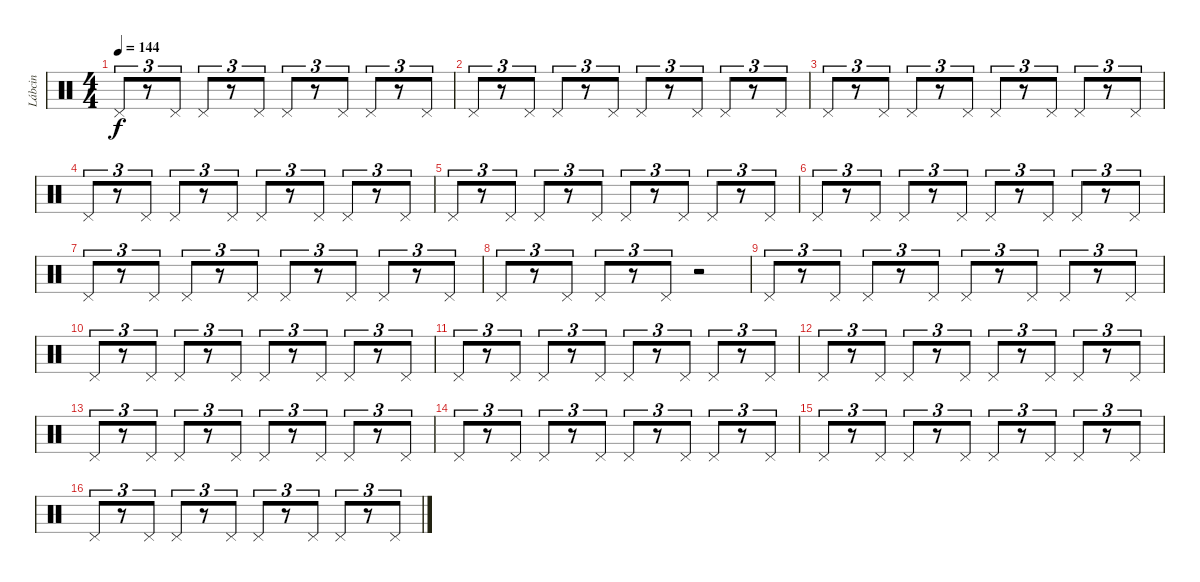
\track ("Lábcin" "Lábcin") {instrument percussion}
\staff {score}
\articulation defaults
\ts (4 4)
\tempo 144
\clef neutral
\ks c "Pedal Hi-Hat (hit)".8{tu (3 2) dy f}
r.8{tu (3 2)} "Pedal Hi-Hat (hit)".8{tu (3 2)} "Pedal Hi-Hat (hit)".8{tu (3 2)} r.8{tu (3 2)} "Pedal Hi-Hat (hit)".8{tu (3 2)} "Pedal Hi-Hat (hit)".8{tu (3 2)} r.8{tu (3 2)} "Pedal Hi-Hat (hit)".8{tu (3 2)} "Pedal Hi-Hat (hit)".8{tu (3 2)} r.8{tu (3 2)} "Pedal Hi-Hat (hit)".8{tu (3 2)} |
"Pedal Hi-Hat (hit)".8{tu (3 2)} r.8{tu (3 2)} "Pedal Hi-Hat (hit)".8{tu (3 2)} "Pedal Hi-Hat (hit)".8{tu (3 2)} r.8{tu (3 2)} "Pedal Hi-Hat (hit)".8{tu (3 2)} "Pedal Hi-Hat (hit)".8{tu (3 2)} r.8{tu (3 2)} "Pedal Hi-Hat (hit)".8{tu (3 2)} "Pedal Hi-Hat (hit)".8{tu (3 2)} r.8{tu (3 2)} "Pedal Hi-Hat (hit)".8{tu (3 2)} |
"Pedal Hi-Hat (hit)".8{tu (3 2)} r.8{tu (3 2)} "Pedal Hi-Hat (hit)".8{tu (3 2)} "Pedal Hi-Hat (hit)".8{tu (3 2)} r.8{tu (3 2)} "Pedal Hi-Hat (hit)".8{tu (3 2)} "Pedal Hi-Hat (hit)".8{tu (3 2)} r.8{tu (3 2)} "Pedal Hi-Hat (hit)".8{tu (3 2)} "Pedal Hi-Hat (hit)".8{tu (3 2)} r.8{tu (3 2)} "Pedal Hi-Hat (hit)".8{tu (3 2)} |
"Pedal Hi-Hat (hit)".8{tu (3 2)} r.8{tu (3 2)} "Pedal Hi-Hat (hit)".8{tu (3 2)} "Pedal Hi-Hat (hit)".8{tu (3 2)} r.8{tu (3 2)} "Pedal Hi-Hat (hit)".8{tu (3 2)} "Pedal Hi-Hat (hit)".8{tu (3 2)} r.8{tu (3 2)} "Pedal Hi-Hat (hit)".8{tu (3 2)} "Pedal Hi-Hat (hit)".8{tu (3 2)} r.8{tu (3 2)} "Pedal Hi-Hat (hit)".8{tu (3 2)} |
"Pedal Hi-Hat (hit)".8{tu (3 2)} r.8{tu (3 2)} "Pedal Hi-Hat (hit)".8{tu (3 2)} "Pedal Hi-Hat (hit)".8{tu (3 2)} r.8{tu (3 2)} "Pedal Hi-Hat (hit)".8{tu (3 2)} "Pedal Hi-Hat (hit)".8{tu (3 2)} r.8{tu (3 2)} "Pedal Hi-Hat (hit)".8{tu (3 2)} "Pedal Hi-Hat (hit)".8{tu (3 2)} r.8{tu (3 2)} "Pedal Hi-Hat (hit)".8{tu (3 2)} |
"Pedal Hi-Hat (hit)".8{tu (3 2)} r.8{tu (3 2)} "Pedal Hi-Hat (hit)".8{tu (3 2)} "Pedal Hi-Hat (hit)".8{tu (3 2)} r.8{tu (3 2)} "Pedal Hi-Hat (hit)".8{tu (3 2)} "Pedal Hi-Hat (hit)".8{tu (3 2)} r.8{tu (3 2)} "Pedal Hi-Hat (hit)".8{tu (3 2)} "Pedal Hi-Hat (hit)".8{tu (3 2)} r.8{tu (3 2)} "Pedal Hi-Hat (hit)".8{tu (3 2)} |
"Pedal Hi-Hat (hit)".8{tu (3 2)} r.8{tu (3 2)} "Pedal Hi-Hat (hit)".8{tu (3 2)} "Pedal Hi-Hat (hit)".8{tu (3 2)} r.8{tu (3 2)} "Pedal Hi-Hat (hit)".8{tu (3 2)} "Pedal Hi-Hat (hit)".8{tu (3 2)} r.8{tu (3 2)} "Pedal Hi-Hat (hit)".8{tu (3 2)} "Pedal Hi-Hat (hit)".8{tu (3 2)} r.8{tu (3 2)} "Pedal Hi-Hat (hit)".8{tu (3 2)} |
"Pedal Hi-Hat (hit)".8{tu (3 2)} r.8{tu (3 2)} "Pedal Hi-Hat (hit)".8{tu (3 2)} "Pedal Hi-Hat (hit)".8{tu (3 2)} r.8{tu (3 2)} "Pedal Hi-Hat (hit)".8{tu (3 2)} r.2 |
"Pedal Hi-Hat (hit)".8{tu (3 2)} r.8{tu (3 2)} "Pedal Hi-Hat (hit)".8{tu (3 2)} "Pedal Hi-Hat (hit)".8{tu (3 2)} r.8{tu (3 2)} "Pedal Hi-Hat (hit)".8{tu (3 2)} "Pedal Hi-Hat (hit)".8{tu (3 2)} r.8{tu (3 2)} "Pedal Hi-Hat (hit)".8{tu (3 2)} "Pedal Hi-Hat (hit)".8{tu (3 2)} r.8{tu (3 2)} "Pedal Hi-Hat (hit)".8{tu (3 2)} |
"Pedal Hi-Hat (hit)".8{tu (3 2)} r.8{tu (3 2)} "Pedal Hi-Hat (hit)".8{tu (3 2)} "Pedal Hi-Hat (hit)".8{tu (3 2)} r.8{tu (3 2)} "Pedal Hi-Hat (hit)".8{tu (3 2)} "Pedal Hi-Hat (hit)".8{tu (3 2)} r.8{tu (3 2)} "Pedal Hi-Hat (hit)".8{tu (3 2)} "Pedal Hi-Hat (hit)".8{tu (3 2)} r.8{tu (3 2)} "Pedal Hi-Hat (hit)".8{tu (3 2)} |
"Pedal Hi-Hat (hit)".8{tu (3 2)} r.8{tu (3 2)} "Pedal Hi-Hat (hit)".8{tu (3 2)} "Pedal Hi-Hat (hit)".8{tu (3 2)} r.8{tu (3 2)} "Pedal Hi-Hat (hit)".8{tu (3 2)} "Pedal Hi-Hat (hit)".8{tu (3 2)} r.8{tu (3 2)} "Pedal Hi-Hat (hit)".8{tu (3 2)} "Pedal Hi-Hat (hit)".8{tu (3 2)} r.8{tu (3 2)} "Pedal Hi-Hat (hit)".8{tu (3 2)} |
"Pedal Hi-Hat (hit)".8{tu (3 2)} r.8{tu (3 2)} "Pedal Hi-Hat (hit)".8{tu (3 2)} "Pedal Hi-Hat (hit)".8{tu (3 2)} r.8{tu (3 2)} "Pedal Hi-Hat (hit)".8{tu (3 2)} "Pedal Hi-Hat (hit)".8{tu (3 2)} r.8{tu (3 2)} "Pedal Hi-Hat (hit)".8{tu (3 2)} "Pedal Hi-Hat (hit)".8{tu (3 2)} r.8{tu (3 2)} "Pedal Hi-Hat (hit)".8{tu (3 2)} |
"Pedal Hi-Hat (hit)".8{tu (3 2)} r.8{tu (3 2)} "Pedal Hi-Hat (hit)".8{tu (3 2)} "Pedal Hi-Hat (hit)".8{tu (3 2)} r.8{tu (3 2)} "Pedal Hi-Hat (hit)".8{tu (3 2)} "Pedal Hi-Hat (hit)".8{tu (3 2)} r.8{tu (3 2)} "Pedal Hi-Hat (hit)".8{tu (3 2)} "Pedal Hi-Hat (hit)".8{tu (3 2)} r.8{tu (3 2)} "Pedal Hi-Hat (hit)".8{tu (3 2)} |
"Pedal Hi-Hat (hit)".8{tu (3 2)} r.8{tu (3 2)} "Pedal Hi-Hat (hit)".8{tu (3 2)} "Pedal Hi-Hat (hit)".8{tu (3 2)} r.8{tu (3 2)} "Pedal Hi-Hat (hit)".8{tu (3 2)} "Pedal Hi-Hat (hit)".8{tu (3 2)} r.8{tu (3 2)} "Pedal Hi-Hat (hit)".8{tu (3 2)} "Pedal Hi-Hat (hit)".8{tu (3 2)} r.8{tu (3 2)} "Pedal Hi-Hat (hit)".8{tu (3 2)} |
"Pedal Hi-Hat (hit)".8{tu (3 2)} r.8{tu (3 2)} "Pedal Hi-Hat (hit)".8{tu (3 2)} "Pedal Hi-Hat (hit)".8{tu (3 2)} r.8{tu (3 2)} "Pedal Hi-Hat (hit)".8{tu (3 2)} "Pedal Hi-Hat (hit)".8{tu (3 2)} r.8{tu (3 2)} "Pedal Hi-Hat (hit)".8{tu (3 2)} "Pedal Hi-Hat (hit)".8{tu (3 2)} r.8{tu (3 2)} "Pedal Hi-Hat (hit)".8{tu (3 2)} |
"Pedal Hi-Hat (hit)".8{tu (3 2)} r.8{tu (3 2)} "Pedal Hi-Hat (hit)".8{tu (3 2)} "Pedal Hi-Hat (hit)".8{tu (3 2)} r.8{tu (3 2)} "Pedal Hi-Hat (hit)".8{tu (3 2)} "Pedal Hi-Hat (hit)".8{tu (3 2)} r.8{tu (3 2)} "Pedal Hi-Hat (hit)".8{tu (3 2)} "Pedal Hi-Hat (hit)".8{tu (3 2)} r.8{tu (3 2)} "Pedal Hi-Hat (hit)".8{tu (3 2)}
